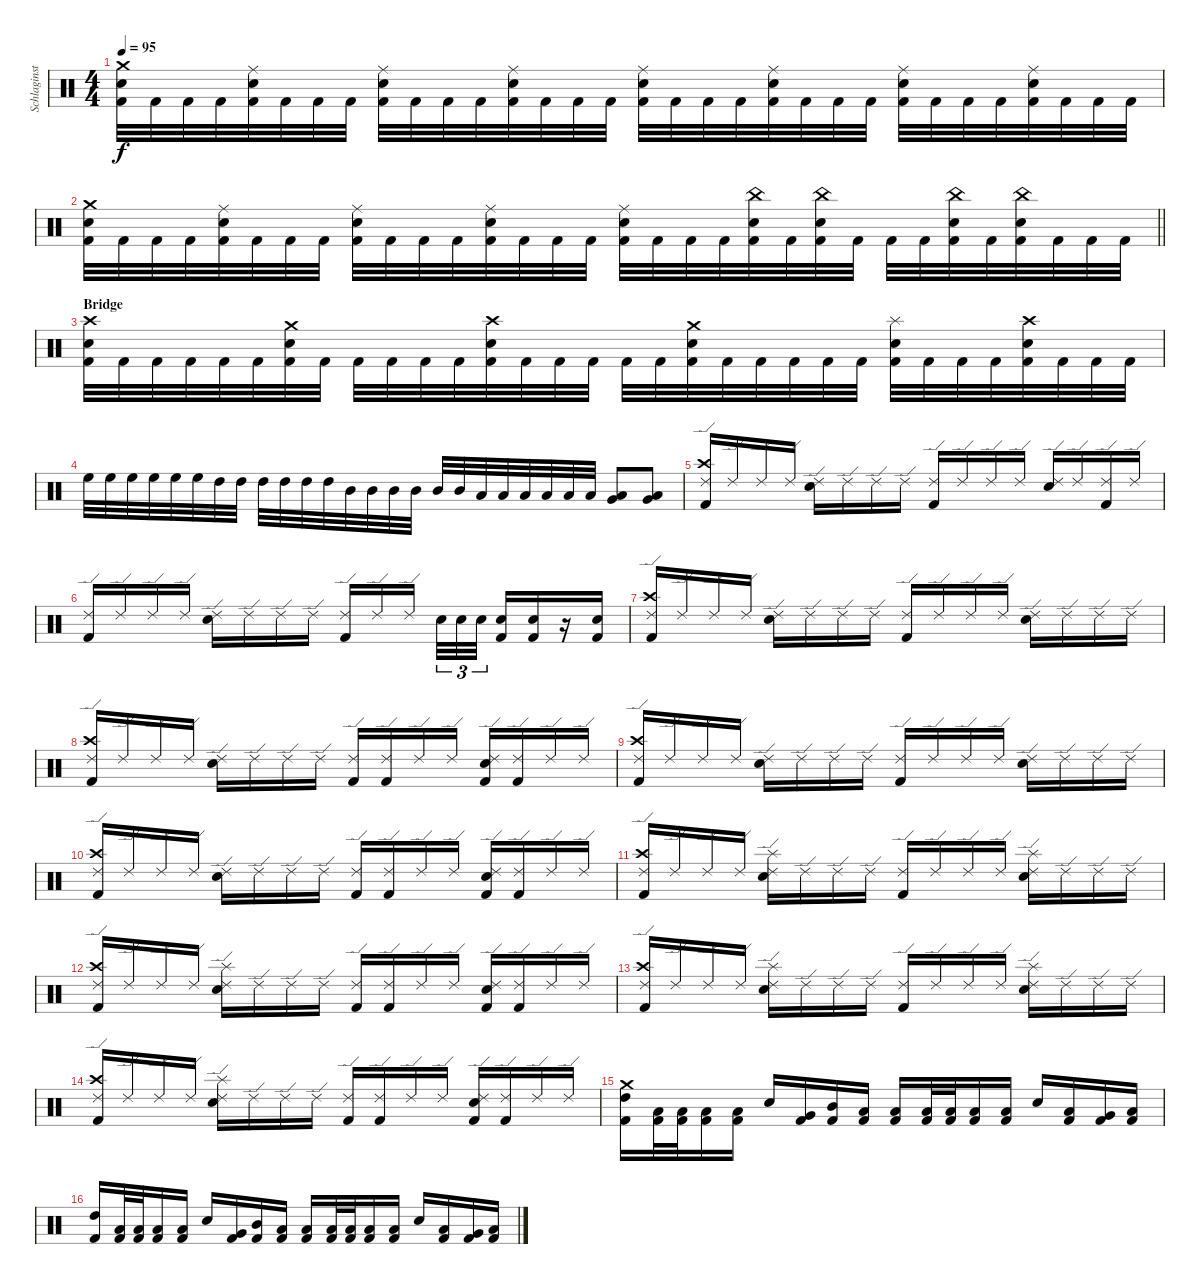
\track ("Schlaginstrumente - Auswahl" "Schlaginst") {instrument percussion}
\staff {score}
\articulation defaults
\ts (4 4)
\tempo 95
\clef neutral
\ks c
("Crash medium (hit)" "Snare (hit) 2" "Kick (hit) 2").32{dy f} "Kick (hit) 2".32 "Kick (hit) 2".32 "Kick (hit) 2".32 ("Snare (hit) 2" "Ride (middle)" "Kick (hit) 2").32 "Kick (hit) 2".32 "Kick (hit) 2".32 "Kick (hit) 2".32 ("Snare (hit) 2" "Ride (middle)" "Kick (hit) 2").32 "Kick (hit) 2".32 "Kick (hit) 2".32 "Kick (hit) 2".32 ("Snare (hit) 2" "Ride (middle)" "Kick (hit) 2").32 "Kick (hit) 2".32 "Kick (hit) 2".32 "Kick (hit) 2".32 ("Snare (hit) 2" "Ride (middle)" "Kick (hit) 2").32 "Kick (hit) 2".32 "Kick (hit) 2".32 "Kick (hit) 2".32 ("Snare (hit) 2" "Ride (middle)" "Kick (hit) 2").32 "Kick (hit) 2".32 "Kick (hit) 2".32 "Kick (hit) 2".32 ("Snare (hit) 2" "Ride (middle)" "Kick (hit) 2").32 "Kick (hit) 2".32 "Kick (hit) 2".32 "Kick (hit) 2".32 ("Snare (hit) 2" "Ride (middle)" "Kick (hit) 2").32 "Kick (hit) 2".32 "Kick (hit) 2".32 "Kick (hit) 2".32 |
\barLineRight lightlight
("Crash medium (hit)" "Snare (hit) 2" "Kick (hit) 2").32 "Kick (hit) 2".32 "Kick (hit) 2".32 "Kick (hit) 2".32 ("Snare (hit) 2" "Ride (middle)" "Kick (hit) 2").32 "Kick (hit) 2".32 "Kick (hit) 2".32 "Kick (hit) 2".32 ("Snare (hit) 2" "Ride (middle)" "Kick (hit) 2").32 "Kick (hit) 2".32 "Kick (hit) 2".32 "Kick (hit) 2".32 ("Snare (hit) 2" "Ride (middle)" "Kick (hit) 2").32 "Kick (hit) 2".32 "Kick (hit) 2".32 "Kick (hit) 2".32 ("Snare (hit) 2" "Ride (middle)" "Kick (hit) 2").32 "Kick (hit) 2".32 "Kick (hit) 2".32 "Kick (hit) 2".32 ("China (hit)" "Snare (hit) 2" "Kick (hit) 2").32 "Kick (hit) 2".32 ("China (hit)" "Snare (hit) 2" "Kick (hit) 2").32 "Kick (hit) 2".32 "Kick (hit) 2".32 "Kick (hit) 2".32 ("China (hit)" "Snare (hit) 2" "Kick (hit) 2").32 "Kick (hit) 2".32 ("China (hit)" "Snare (hit) 2" "Kick (hit) 2").32 "Kick (hit) 2".32 "Kick (hit) 2".32 "Kick (hit) 2".32 |
\section ("" "Bridge")
("Crash high (hit)" "Snare (hit) 2" "Kick (hit) 2").32 "Kick (hit) 2".32 "Kick (hit) 2".32 "Kick (hit) 2".32 "Kick (hit) 2".32 "Kick (hit) 2".32 ("Crash medium (hit)" "Snare (hit) 2" "Kick (hit) 2").32 "Kick (hit) 2".32 "Kick (hit) 2".32 "Kick (hit) 2".32 "Kick (hit) 2".32 "Kick (hit) 2".32 ("Crash high (hit)" "Snare (hit) 2" "Kick (hit) 2").32 "Kick (hit) 2".32 "Kick (hit) 2".32 "Kick (hit) 2".32 "Kick (hit) 2".32 "Kick (hit) 2".32 ("Crash medium (hit)" "Snare (hit) 2" "Kick (hit) 2").32 "Kick (hit) 2".32 "Kick (hit) 2".32 "Kick (hit) 2".32 "Kick (hit) 2".32 "Kick (hit) 2".32 ("Splash (hit)" "Snare (hit) 2" "Kick (hit) 2").32 "Kick (hit) 2".32 "Kick (hit) 2".32 "Kick (hit) 2".32 ("Crash high (hit)" "Snare (hit) 2" "Kick (hit) 2").32 "Kick (hit) 2".32 "Kick (hit) 2".32 "Kick (hit) 2".32 |
"High Floor Tom (hit)".32 "High Floor Tom (hit)".32 "High Floor Tom (hit)".32 "High Floor Tom (hit)".32 "High Floor Tom (hit)".32 "High Floor Tom (hit)".32 "High Tom (hit)".32 "High Tom (hit)".32 "High Tom (hit)".32 "High Tom (hit)".32 "High Tom (hit)".32 "High Tom (hit)".32 "Mid Tom (hit)".32 "Mid Tom (hit)".32 "Mid Tom (hit)".32 "Mid Tom (hit)".32 "Mid Tom (hit)".32 "Mid Tom (hit)".32 "Low Tom (hit)".32 "Low Tom (hit)".32 "Low Tom (hit)".32 "Low Tom (hit)".32 "Low Tom (hit)".32 "Low Tom (hit)".32 ("Very Low Tom (hit)" "Low Floor Tom (hit)").8 ("Very Low Tom (hit)" "Low Floor Tom (hit)").8 |
("Crash high (hit)" "Kick (hit) 2" "Ride (edge) 2").16 "Ride (edge) 2".16 "Ride (edge) 2".16 "Ride (edge) 2".16 ("Snare (hit) 2" "Ride (edge) 2").16 "Ride (edge) 2".16 "Ride (edge) 2".16 "Ride (edge) 2".16 ("Kick (hit) 2" "Ride (edge) 2").16 "Ride (edge) 2".16 "Ride (edge) 2".16 "Ride (edge) 2".16 ("Snare (hit) 2" "Ride (edge) 2").16 "Ride (edge) 2".16 ("Kick (hit) 2" "Ride (edge) 2").16 "Ride (edge) 2".16 |
("Kick (hit) 2" "Ride (edge) 2").16 "Ride (edge) 2".16 "Ride (edge) 2".16 "Ride (edge) 2".16 ("Snare (hit) 2" "Ride (edge) 2").16 "Ride (edge) 2".16 "Ride (edge) 2".16 "Ride (edge) 2".16 ("Kick (hit) 2" "Ride (edge) 2").16 "Ride (edge) 2".16 "Ride (edge) 2".16{beam splitsecondary} "Snare (hit) 2".32{tu (3 2)} "Snare (hit) 2".32{tu (3 2)} "Snare (hit) 2".32{tu (3 2)} ("Kick (hit) 2" "Snare (hit) 2").16 ("Kick (hit) 2" "Snare (hit) 2").16 r.16 ("Kick (hit) 2" "Snare (hit) 2").16 |
("Crash high (hit)" "Kick (hit) 2" "Ride (edge) 2").16 "Ride (edge) 2".16 "Ride (edge) 2".16 "Ride (edge) 2".16 ("Snare (hit) 2" "Ride (edge) 2").16 "Ride (edge) 2".16 "Ride (edge) 2".16 "Ride (edge) 2".16 ("Kick (hit) 2" "Ride (edge) 2").16 "Ride (edge) 2".16 "Ride (edge) 2".16 "Ride (edge) 2".16 ("Snare (hit) 2" "Ride (edge) 2").16 "Ride (edge) 2".16 "Ride (edge) 2".16 "Ride (edge) 2".16 |
("Crash high (hit)" "Kick (hit) 2" "Ride (edge) 2").16 "Ride (edge) 2".16 "Ride (edge) 2".16 "Ride (edge) 2".16 ("Snare (hit) 2" "Ride (edge) 2").16 "Ride (edge) 2".16 "Ride (edge) 2".16 "Ride (edge) 2".16 ("Kick (hit) 2" "Ride (edge) 2").16 ("Kick (hit) 2" "Ride (edge) 2").16 "Ride (edge) 2".16 "Ride (edge) 2".16 ("Kick (hit) 2" "Snare (hit) 2" "Ride (edge) 2").16 ("Kick (hit) 2" "Ride (edge) 2").16 "Ride (edge) 2".16 "Ride (edge) 2".16 |
("Crash high (hit)" "Kick (hit) 2" "Ride (edge) 2").16 "Ride (edge) 2".16 "Ride (edge) 2".16 "Ride (edge) 2".16 ("Snare (hit) 2" "Ride (edge) 2").16 "Ride (edge) 2".16 "Ride (edge) 2".16 "Ride (edge) 2".16 ("Kick (hit) 2" "Ride (edge) 2").16 "Ride (edge) 2".16 "Ride (edge) 2".16 "Ride (edge) 2".16 ("Snare (hit) 2" "Ride (edge) 2").16 "Ride (edge) 2".16 "Ride (edge) 2".16 "Ride (edge) 2".16 |
("Crash high (hit)" "Kick (hit) 2" "Ride (edge) 2").16 "Ride (edge) 2".16 "Ride (edge) 2".16 "Ride (edge) 2".16 ("Snare (hit) 2" "Ride (edge) 2").16 "Ride (edge) 2".16 "Ride (edge) 2".16 "Ride (edge) 2".16 ("Kick (hit) 2" "Ride (edge) 2").16 ("Kick (hit) 2" "Ride (edge) 2").16 "Ride (edge) 2".16 "Ride (edge) 2".16 ("Kick (hit) 2" "Snare (hit) 2" "Ride (edge) 2").16 ("Kick (hit) 2" "Ride (edge) 2").16 "Ride (edge) 2".16 "Ride (edge) 2".16 |
("Crash high (hit)" "Kick (hit) 2" "Ride (edge) 2").16 "Ride (edge) 2".16 "Ride (edge) 2".16 "Ride (edge) 2".16 ("Splash (hit)" "Snare (hit) 2" "Ride (edge) 2").16 "Ride (edge) 2".16 "Ride (edge) 2".16 "Ride (edge) 2".16 ("Kick (hit) 2" "Ride (edge) 2").16 "Ride (edge) 2".16 "Ride (edge) 2".16 "Ride (edge) 2".16 ("Splash (hit)" "Snare (hit) 2" "Ride (edge) 2").16 "Ride (edge) 2".16 "Ride (edge) 2".16 "Ride (edge) 2".16 |
("Crash high (hit)" "Kick (hit) 2" "Ride (edge) 2").16 "Ride (edge) 2".16 "Ride (edge) 2".16 "Ride (edge) 2".16 ("Splash (hit)" "Snare (hit) 2" "Ride (edge) 2").16 "Ride (edge) 2".16 "Ride (edge) 2".16 "Ride (edge) 2".16 ("Kick (hit) 2" "Ride (edge) 2").16 ("Kick (hit) 2" "Ride (edge) 2").16 "Ride (edge) 2".16 "Ride (edge) 2".16 ("Kick (hit) 2" "Snare (hit) 2" "Ride (edge) 2").16 ("Kick (hit) 2" "Ride (edge) 2").16 "Ride (edge) 2".16 "Ride (edge) 2".16 |
("Crash high (hit)" "Kick (hit) 2" "Ride (edge) 2").16 "Ride (edge) 2".16 "Ride (edge) 2".16 "Ride (edge) 2".16 ("Splash (hit)" "Snare (hit) 2" "Ride (edge) 2").16 "Ride (edge) 2".16 "Ride (edge) 2".16 "Ride (edge) 2".16 ("Kick (hit) 2" "Ride (edge) 2").16 "Ride (edge) 2".16 "Ride (edge) 2".16 "Ride (edge) 2".16 ("Splash (hit)" "Snare (hit) 2" "Ride (edge) 2").16 "Ride (edge) 2".16 "Ride (edge) 2".16 "Ride (edge) 2".16 |
("Crash high (hit)" "Kick (hit) 2" "Ride (edge) 2").16 "Ride (edge) 2".16 "Ride (edge) 2".16 "Ride (edge) 2".16 ("Splash (hit)" "Snare (hit) 2" "Ride (edge) 2").16 "Ride (edge) 2".16 "Ride (edge) 2".16 "Ride (edge) 2".16 ("Kick (hit) 2" "Ride (edge) 2").16 ("Kick (hit) 2" "Ride (edge) 2").16 "Ride (edge) 2".16 "Ride (edge) 2".16 ("Kick (hit) 2" "Snare (hit) 2" "Ride (edge) 2").16 ("Kick (hit) 2" "Ride (edge) 2").16 "Ride (edge) 2".16 "Ride (edge) 2".16 |
("Crash medium (hit)" "High Tom (hit)" "Kick (hit) 2").16 ("Low Tom (hit)" "Kick (hit) 2").32 ("Low Tom (hit)" "Kick (hit) 2").32 ("Low Tom (hit)" "Kick (hit) 2").16 ("Low Tom (hit)" "Kick (hit) 2").16 "Snare (hit) 2".16 ("Very Low Tom (hit)" "Kick (hit) 2").16 ("Mid Tom (hit)" "Kick (hit) 2").16 ("Low Tom (hit)" "Kick (hit) 2").16 ("Low Floor Tom (hit)" "Kick (hit) 2").16 ("Low Floor Tom (hit)" "Kick (hit) 2").32 ("Low Floor Tom (hit)" "Kick (hit) 2").32 ("Low Floor Tom (hit)" "Kick (hit) 2").16 ("Low Floor Tom (hit)" "Kick (hit) 2").16 "Snare (hit) 2".16 ("Low Floor Tom (hit)" "Kick (hit) 2").16 ("Very Low Tom (hit)" "Kick (hit) 2").16 ("Low Floor Tom (hit)" "Kick (hit) 2").16 |
("High Tom (hit)" "Kick (hit) 2").16 ("Low Tom (hit)" "Kick (hit) 2").32 ("Low Tom (hit)" "Kick (hit) 2").32 ("Low Tom (hit)" "Kick (hit) 2").16 ("Low Tom (hit)" "Kick (hit) 2").16 "Snare (hit) 2".16 ("Very Low Tom (hit)" "Kick (hit) 2").16 ("Mid Tom (hit)" "Kick (hit) 2").16 ("Low Tom (hit)" "Kick (hit) 2").16 ("Low Floor Tom (hit)" "Kick (hit) 2").16 ("Low Floor Tom (hit)" "Kick (hit) 2").32 ("Low Floor Tom (hit)" "Kick (hit) 2").32 ("Low Floor Tom (hit)" "Kick (hit) 2").16 ("Low Floor Tom (hit)" "Kick (hit) 2").16 "Snare (hit) 2".16 ("Low Floor Tom (hit)" "Kick (hit) 2").16 ("Very Low Tom (hit)" "Kick (hit) 2").16 ("Low Floor Tom (hit)" "Kick (hit) 2").16
